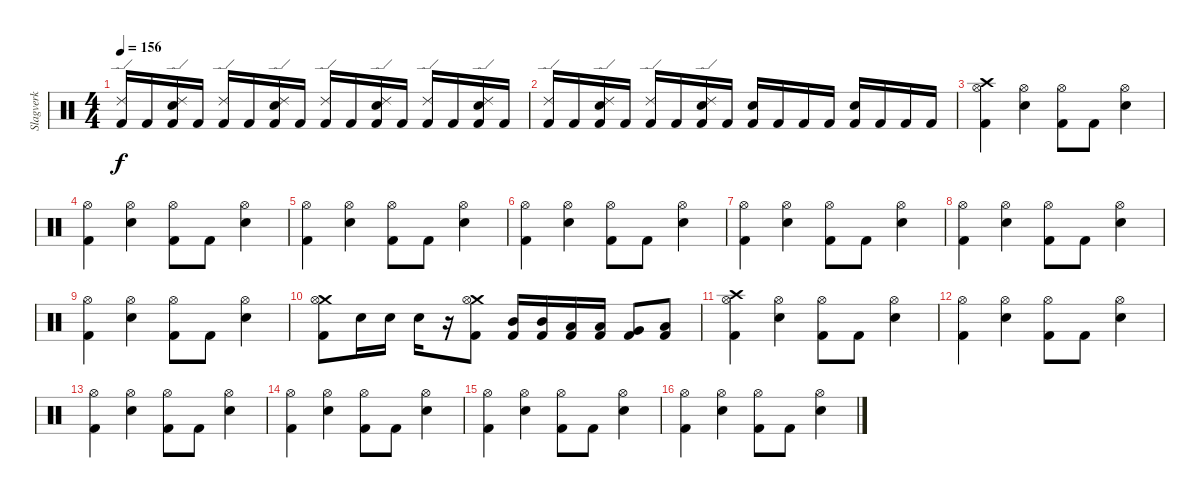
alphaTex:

\track ("Slagverk" "Slagverk") {instrument percussion}
\staff {score}
\articulation defaults
\ts (4 4)
\tempo 156
\clef neutral
\ks c
("Ride (edge) 2" "Kick (hit) 2").16{dy f} "Kick (hit) 2".16 ("Snare (hit) 2" "Ride (edge) 2" "Kick (hit) 2").16 "Kick (hit) 2".16 ("Ride (edge) 2" "Kick (hit) 2").16 "Kick (hit) 2".16 ("Snare (hit) 2" "Ride (edge) 2" "Kick (hit) 2").16 "Kick (hit) 2".16 ("Ride (edge) 2" "Kick (hit) 2").16 "Kick (hit) 2".16 ("Snare (hit) 2" "Ride (edge) 2" "Kick (hit) 2").16 "Kick (hit) 2".16 ("Ride (edge) 2" "Kick (hit) 2").16 "Kick (hit) 2".16 ("Snare (hit) 2" "Ride (edge) 2" "Kick (hit) 2").16 "Kick (hit) 2".16 |
("Ride (edge) 2" "Kick (hit) 2").16 "Kick (hit) 2".16 ("Snare (hit) 2" "Ride (edge) 2" "Kick (hit) 2").16 "Kick (hit) 2".16 ("Ride (edge) 2" "Kick (hit) 2").16 "Kick (hit) 2".16 ("Snare (hit) 2" "Ride (edge) 2" "Kick (hit) 2").16 "Kick (hit) 2".16 ("Snare (hit) 2" "Kick (hit) 2").16 "Kick (hit) 2".16 "Kick (hit) 2".16 "Kick (hit) 2".16 ("Snare (hit) 2" "Kick (hit) 2").16 "Kick (hit) 2".16 "Kick (hit) 2".16 "Kick (hit) 2".16 |
("Crash high (hit)" "Hi-Hat (open)" "Kick (hit) 2").4 ("Hi-Hat (open)" "Snare (hit) 2").4 ("Hi-Hat (open)" "Kick (hit) 2").8 "Kick (hit) 2".8 ("Hi-Hat (open)" "Snare (hit) 2").4 |
("Hi-Hat (open)" "Kick (hit) 2").4 ("Hi-Hat (open)" "Snare (hit) 2").4 ("Hi-Hat (open)" "Kick (hit) 2").8 "Kick (hit) 2".8 ("Hi-Hat (open)" "Snare (hit) 2").4 |
("Hi-Hat (open)" "Kick (hit) 2").4 ("Hi-Hat (open)" "Snare (hit) 2").4 ("Hi-Hat (open)" "Kick (hit) 2").8 "Kick (hit) 2".8 ("Hi-Hat (open)" "Snare (hit) 2").4 |
("Hi-Hat (open)" "Kick (hit) 2").4 ("Hi-Hat (open)" "Snare (hit) 2").4 ("Hi-Hat (open)" "Kick (hit) 2").8 "Kick (hit) 2".8 ("Hi-Hat (open)" "Snare (hit) 2").4 |
("Hi-Hat (open)" "Kick (hit) 2").4 ("Hi-Hat (open)" "Snare (hit) 2").4 ("Hi-Hat (open)" "Kick (hit) 2").8 "Kick (hit) 2".8 ("Hi-Hat (open)" "Snare (hit) 2").4 |
("Hi-Hat (open)" "Kick (hit) 2").4 ("Hi-Hat (open)" "Snare (hit) 2").4 ("Hi-Hat (open)" "Kick (hit) 2").8 "Kick (hit) 2".8 ("Hi-Hat (open)" "Snare (hit) 2").4 |
("Hi-Hat (open)" "Kick (hit) 2").4 ("Hi-Hat (open)" "Snare (hit) 2").4 ("Hi-Hat (open)" "Kick (hit) 2").8 "Kick (hit) 2".8 ("Hi-Hat (open)" "Snare (hit) 2").4 |
("Crash medium (hit)" "Hi-Hat (open)" "Kick (hit) 2").8 "Snare (hit) 2".16 "Snare (hit) 2".16 "Snare (hit) 2".16 r.16 ("Crash medium (hit)" "Hi-Hat (open)" "Kick (hit) 2").8 ("Mid Tom (hit)" "Kick (hit) 2").16 ("Mid Tom (hit)" "Kick (hit) 2").16 ("Low Tom (hit)" "Kick (hit) 2").16 ("Low Tom (hit)" "Kick (hit) 2").16 ("Very Low Tom (hit)" "Kick (hit) 2").8 ("Low Floor Tom (hit)" "Kick (hit) 2").8 |
("Crash high (hit)" "Hi-Hat (open)" "Kick (hit) 2").4 ("Hi-Hat (open)" "Snare (hit) 2").4 ("Hi-Hat (open)" "Kick (hit) 2").8 "Kick (hit) 2".8 ("Hi-Hat (open)" "Snare (hit) 2").4 |
("Hi-Hat (open)" "Kick (hit) 2").4 ("Hi-Hat (open)" "Snare (hit) 2").4 ("Hi-Hat (open)" "Kick (hit) 2").8 "Kick (hit) 2".8 ("Hi-Hat (open)" "Snare (hit) 2").4 |
("Hi-Hat (open)" "Kick (hit) 2").4 ("Hi-Hat (open)" "Snare (hit) 2").4 ("Hi-Hat (open)" "Kick (hit) 2").8 "Kick (hit) 2".8 ("Hi-Hat (open)" "Snare (hit) 2").4 |
("Hi-Hat (open)" "Kick (hit) 2").4 ("Hi-Hat (open)" "Snare (hit) 2").4 ("Hi-Hat (open)" "Kick (hit) 2").8 "Kick (hit) 2".8 ("Hi-Hat (open)" "Snare (hit) 2").4 |
("Hi-Hat (open)" "Kick (hit) 2").4 ("Hi-Hat (open)" "Snare (hit) 2").4 ("Hi-Hat (open)" "Kick (hit) 2").8 "Kick (hit) 2".8 ("Hi-Hat (open)" "Snare (hit) 2").4 |
("Hi-Hat (open)" "Kick (hit) 2").4 ("Hi-Hat (open)" "Snare (hit) 2").4 ("Hi-Hat (open)" "Kick (hit) 2").8 "Kick (hit) 2".8 ("Hi-Hat (open)" "Snare (hit) 2").4
